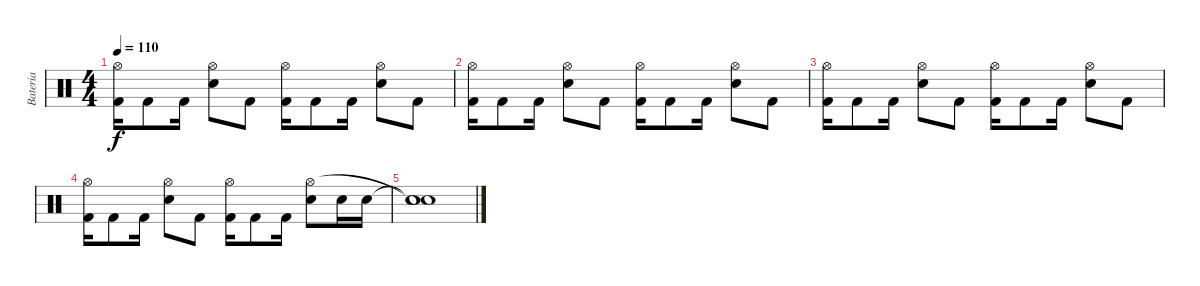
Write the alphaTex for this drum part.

\track ("Bateria" "Bateria") {instrument percussion}
\staff {score}
\articulation defaults
\ts (4 4)
\tempo 110
\clef neutral
\ks c
("Kick (hit) 2" "Hi-Hat (open)").16{dy f} "Kick (hit) 2".8 "Kick (hit) 2".16 ("Electric Snare (hit)" "Hi-Hat (open)").8 "Kick (hit) 2".8 ("Kick (hit) 2" "Hi-Hat (open)").16 "Kick (hit) 2".8 "Kick (hit) 2".16 ("Electric Snare (hit)" "Hi-Hat (open)").8 "Kick (hit) 2".8 |
("Kick (hit) 2" "Hi-Hat (open)").16 "Kick (hit) 2".8 "Kick (hit) 2".16 ("Electric Snare (hit)" "Hi-Hat (open)").8 "Kick (hit) 2".8 ("Kick (hit) 2" "Hi-Hat (open)").16 "Kick (hit) 2".8 "Kick (hit) 2".16 ("Electric Snare (hit)" "Hi-Hat (open)").8 "Kick (hit) 2".8 |
("Kick (hit) 2" "Hi-Hat (open)").16 "Kick (hit) 2".8 "Kick (hit) 2".16 ("Electric Snare (hit)" "Hi-Hat (open)").8 "Kick (hit) 2".8 ("Kick (hit) 2" "Hi-Hat (open)").16 "Kick (hit) 2".8 "Kick (hit) 2".16 ("Electric Snare (hit)" "Hi-Hat (open)").8 "Kick (hit) 2".8 |
("Kick (hit) 2" "Hi-Hat (open)").16 "Kick (hit) 2".8 "Kick (hit) 2".16 ("Electric Snare (hit)" "Hi-Hat (open)").8 "Kick (hit) 2".8 ("Kick (hit) 2" "Hi-Hat (open)").16 "Kick (hit) 2".8 "Kick (hit) 2".16 ("Electric Snare (hit)" "Hi-Hat (open)").8 "Electric Snare (hit)".16 "Electric Snare (hit)".16 |
("Snare (hit)"{t} "Snare (hit)"{t} "Snare (hit)").1
